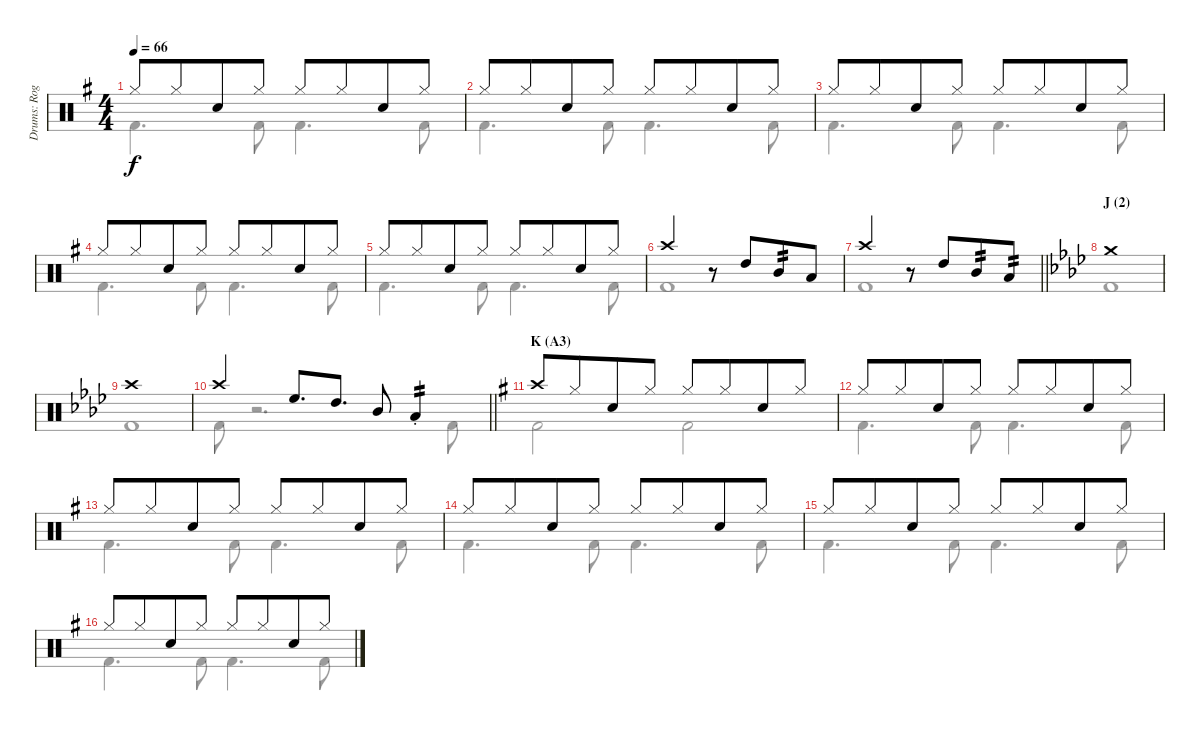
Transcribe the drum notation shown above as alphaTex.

\track ("Drums: Roger Pope" "Drums: Rog") {instrument percussion}
\staff {score}
\articulation defaults
\voice
\ts (4 4)
\tempo 66
\clef neutral
\ks g "Hi-Hat (closed)".8{dy f} "Hi-Hat (closed)".8{beam merge} "Electric Snare (hit)".8 "Hi-Hat (closed)".8 "Hi-Hat (closed)".8 "Hi-Hat (closed)".8{beam merge} "Electric Snare (hit)".8 "Hi-Hat (closed)".8
|
"Hi-Hat (closed)".8 "Hi-Hat (closed)".8{beam merge} "Electric Snare (hit)".8 "Hi-Hat (closed)".8 "Hi-Hat (closed)".8 "Hi-Hat (closed)".8{beam merge} "Electric Snare (hit)".8 "Hi-Hat (closed)".8 |
"Hi-Hat (closed)".8 "Hi-Hat (closed)".8{beam merge} "Electric Snare (hit)".8 "Hi-Hat (closed)".8 "Hi-Hat (closed)".8 "Hi-Hat (closed)".8{beam merge} "Electric Snare (hit)".8 "Hi-Hat (closed)".8 |
"Hi-Hat (closed)".8 "Hi-Hat (closed)".8{beam merge} "Electric Snare (hit)".8 "Hi-Hat (closed)".8 "Hi-Hat (closed)".8 "Hi-Hat (closed)".8{beam merge} "Electric Snare (hit)".8 "Hi-Hat (closed)".8 |
"Hi-Hat (closed)".8 "Hi-Hat (closed)".8{beam merge} "Electric Snare (hit)".8 "Hi-Hat (closed)".8 "Hi-Hat (closed)".8 "Hi-Hat (closed)".8{beam merge} "Electric Snare (hit)".8 "Hi-Hat (closed)".8 |
"Crash high (hit)".2 r.8 "High Tom (hit)".8{beam merge} "Mid Tom (hit)".8{tp 2} "Low Tom (hit)".8 |
\barLineRight lightlight "Crash high (hit)".2
r.8 "High Tom (hit)".8{beam merge} "Mid Tom (hit)".8{tp 2} "Low Tom (hit)".8{tp 2} |
\section ("" "J (2)")
\ks ab "Crash medium (hit)".1
|
"Crash high (hit)".1 |
\barLineRight lightlight "Crash high (hit)".4 "High Floor Tom (hit)".8{d} "High Tom (hit)".8{d} "Mid Tom (hit)".8 "Low Tom (hit)"{st}.4{tp 2}
|
\section ("" "K (A3)")
\ks g "Crash high (hit)".8{beam merge} "Hi-Hat (closed)".8{beam merge} "Electric Snare (hit)".8{beam merge} "Hi-Hat (closed)".8 "Hi-Hat (closed)".8 "Hi-Hat (closed)".8{beam merge} "Electric Snare (hit)".8 "Hi-Hat (closed)".8
|
"Hi-Hat (closed)".8{beam merge} "Hi-Hat (closed)".8{beam merge} "Electric Snare (hit)".8{beam merge} "Hi-Hat (closed)".8 "Hi-Hat (closed)".8 "Hi-Hat (closed)".8{beam merge} "Electric Snare (hit)".8 "Hi-Hat (closed)".8 |
"Hi-Hat (closed)".8{beam merge} "Hi-Hat (closed)".8{beam merge} "Electric Snare (hit)".8{beam merge} "Hi-Hat (closed)".8 "Hi-Hat (closed)".8 "Hi-Hat (closed)".8{beam merge} "Electric Snare (hit)".8 "Hi-Hat (closed)".8 |
"Hi-Hat (closed)".8{beam merge} "Hi-Hat (closed)".8{beam merge} "Electric Snare (hit)".8{beam merge} "Hi-Hat (closed)".8 "Hi-Hat (closed)".8 "Hi-Hat (closed)".8{beam merge} "Electric Snare (hit)".8 "Hi-Hat (closed)".8 |
"Hi-Hat (closed)".8{beam merge} "Hi-Hat (closed)".8{beam merge} "Electric Snare (hit)".8{beam merge} "Hi-Hat (closed)".8 "Hi-Hat (closed)".8 "Hi-Hat (closed)".8{beam merge} "Electric Snare (hit)".8 "Hi-Hat (closed)".8 |
"Hi-Hat (closed)".8{beam merge} "Hi-Hat (closed)".8{beam merge} "Electric Snare (hit)".8{beam merge} "Hi-Hat (closed)".8 "Hi-Hat (closed)".8 "Hi-Hat (closed)".8{beam merge} "Electric Snare (hit)".8 "Hi-Hat (closed)".8
\voice
\clef neutral
\ottava regular
\simile none
\ks g "Kick (hit) 2".4{d dy f} "Kick (hit) 2".8 "Kick (hit) 2".4{d} "Kick (hit) 2".8
|
"Kick (hit) 2".4{d} "Kick (hit) 2".8 "Kick (hit) 2".4{d} "Kick (hit) 2".8 |
"Kick (hit) 2".4{d} "Kick (hit) 2".8 "Kick (hit) 2".4{d} "Kick (hit) 2".8 |
"Kick (hit) 2".4{d} "Kick (hit) 2".8 "Kick (hit) 2".4{d} "Kick (hit) 2".8 |
"Kick (hit) 2".4{d} "Kick (hit) 2".8 "Kick (hit) 2".4{d} "Kick (hit) 2".8 |
"Kick (hit) 2".1 |
\barLineRight lightlight "Kick (hit) 2".1
|
\ks ab "Kick (hit) 2".1
|
"Kick (hit) 2".1 |
\barLineRight lightlight "Kick (hit) 2".8
r.2{d} "Kick (hit) 2".8 |
\ks g "Kick (hit) 2".2 "Kick (hit) 2".2
|
"Kick (hit) 2".4{d} "Kick (hit) 2".8 "Kick (hit) 2".4{d} "Kick (hit) 2".8 |
"Kick (hit) 2".4{d} "Kick (hit) 2".8 "Kick (hit) 2".4{d} "Kick (hit) 2".8 |
"Kick (hit) 2".4{d} "Kick (hit) 2".8 "Kick (hit) 2".4{d} "Kick (hit) 2".8 |
"Kick (hit) 2".4{d} "Kick (hit) 2".8 "Kick (hit) 2".4{d} "Kick (hit) 2".8 |
"Kick (hit) 2".4{d} "Kick (hit) 2".8 "Kick (hit) 2".4{d} "Kick (hit) 2".8
